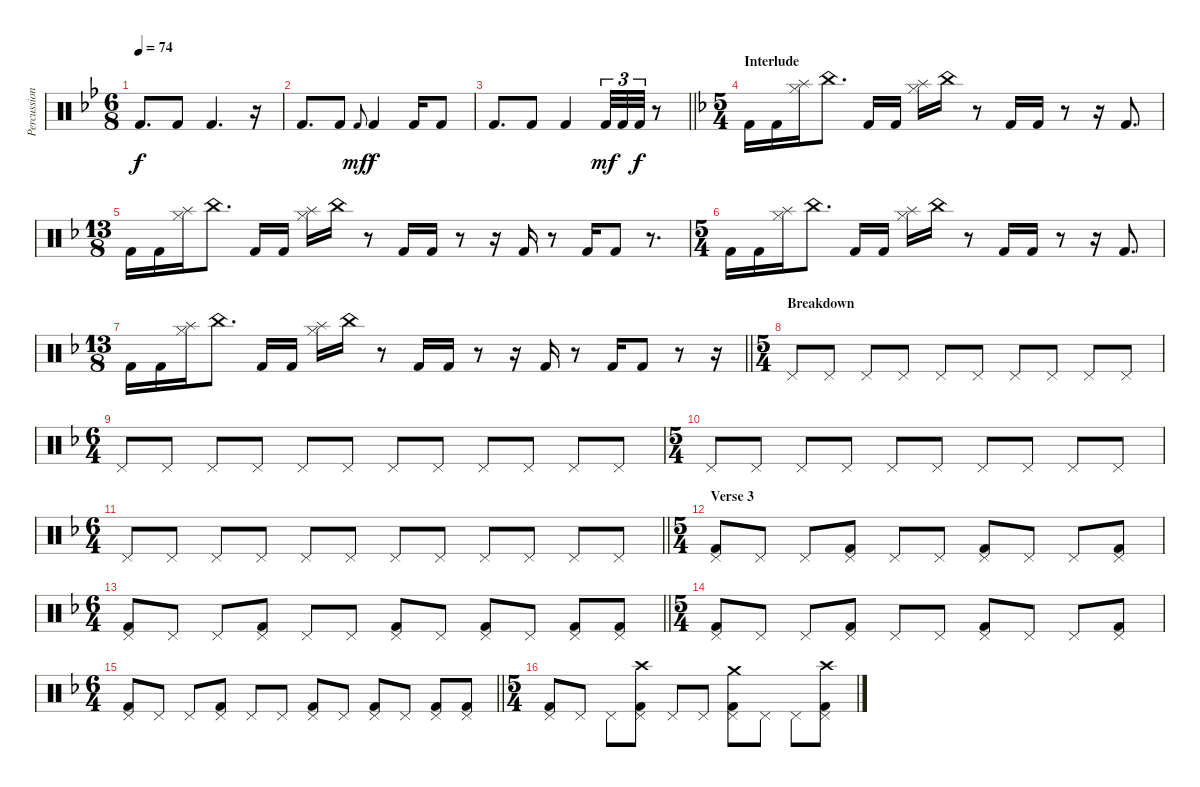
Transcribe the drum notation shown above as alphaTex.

\track ("Percussion" "Percussion") {instrument percussion}
\staff {score}
\articulation defaults
\ts (6 8)
\tempo 74
\clef neutral
\ks bb "Kick (hit) 2".8{d dy f} "Kick (hit) 2".8 "Kick (hit) 2".4{d}
r.16 |
"Kick (hit) 2".8{d} "Kick (hit) 2".8 "Kick (hit) 2".8{gr onbeat dy mf} "Kick (hit) 2".4{dy f} "Kick (hit) 2".16 "Kick (hit) 2".8 |
\barLineRight lightlight "Kick (hit) 2".8{d} "Kick (hit) 2".8 "Kick (hit) 2".4 "Kick (hit) 2".32{tu (3 2) dy mf} "Kick (hit) 2".32{tu (3 2)} "Kick (hit) 2".32{tu (3 2) dy f}
r.8 |
\ts (5 4)
\section ("" "Interlude")
\ks f "Kick (hit) 2".16 "Kick (hit) 2".16
("Hi-Hat (closed)" "Splash (hit)").16 "China (hit)".8{d} "Kick (hit) 2".16 "Kick (hit) 2".16 ("Hi-Hat (closed)" "Splash (hit)").16 "China (hit)".16 r.8 "Kick (hit) 2".16 "Kick (hit) 2".16 r.8 r.16 "Kick (hit) 2".8{d} |
\ts (13 8)
"Kick (hit) 2".16 "Kick (hit) 2".16 ("Splash (hit)" "Hi-Hat (closed)").16 "China (hit)".8{d} "Kick (hit) 2".16 "Kick (hit) 2".16 ("Splash (hit)" "Hi-Hat (closed)").16 "China (hit)".16 r.8 "Kick (hit) 2".16 "Kick (hit) 2".16 r.8 r.16 "Kick (hit) 2".16 r.8 "Kick (hit) 2".16 "Kick (hit) 2".8 r.8{d} |
\ts (5 4)
"Kick (hit) 2".16 "Kick (hit) 2".16 ("Hi-Hat (closed)" "Splash (hit)").16 "China (hit)".8{d} "Kick (hit) 2".16 "Kick (hit) 2".16 ("Hi-Hat (closed)" "Splash (hit)").16 "China (hit)".16 r.8 "Kick (hit) 2".16 "Kick (hit) 2".16 r.8 r.16 "Kick (hit) 2".8{d} |
\ts (13 8)
\barLineRight lightlight "Kick (hit) 2".16 "Kick (hit) 2".16
("Splash (hit)" "Hi-Hat (closed)").16 "China (hit)".8{d} "Kick (hit) 2".16 "Kick (hit) 2".16 ("Splash (hit)" "Hi-Hat (closed)").16 "China (hit)".16 r.8 "Kick (hit) 2".16 "Kick (hit) 2".16 r.8 r.16 "Kick (hit) 2".16 r.8 "Kick (hit) 2".16 "Kick (hit) 2".8 r.8 r.16 |
\ts (5 4)
\section ("" "Breakdown")
"Pedal Hi-Hat (hit)".8 "Pedal Hi-Hat (hit)".8 "Pedal Hi-Hat (hit)".8 "Pedal Hi-Hat (hit)".8 "Pedal Hi-Hat (hit)".8 "Pedal Hi-Hat (hit)".8 "Pedal Hi-Hat (hit)".8 "Pedal Hi-Hat (hit)".8 "Pedal Hi-Hat (hit)".8 "Pedal Hi-Hat (hit)".8 |
\ts (6 4)
"Pedal Hi-Hat (hit)".8 "Pedal Hi-Hat (hit)".8 "Pedal Hi-Hat (hit)".8 "Pedal Hi-Hat (hit)".8 "Pedal Hi-Hat (hit)".8 "Pedal Hi-Hat (hit)".8 "Pedal Hi-Hat (hit)".8 "Pedal Hi-Hat (hit)".8 "Pedal Hi-Hat (hit)".8 "Pedal Hi-Hat (hit)".8 "Pedal Hi-Hat (hit)".8 "Pedal Hi-Hat (hit)".8 |
\ts (5 4)
"Pedal Hi-Hat (hit)".8 "Pedal Hi-Hat (hit)".8 "Pedal Hi-Hat (hit)".8 "Pedal Hi-Hat (hit)".8 "Pedal Hi-Hat (hit)".8 "Pedal Hi-Hat (hit)".8 "Pedal Hi-Hat (hit)".8 "Pedal Hi-Hat (hit)".8 "Pedal Hi-Hat (hit)".8 "Pedal Hi-Hat (hit)".8 |
\ts (6 4)
\barLineRight lightlight "Pedal Hi-Hat (hit)".8 "Pedal Hi-Hat (hit)".8 "Pedal Hi-Hat (hit)".8 "Pedal Hi-Hat (hit)".8 "Pedal Hi-Hat (hit)".8 "Pedal Hi-Hat (hit)".8 "Pedal Hi-Hat (hit)".8 "Pedal Hi-Hat (hit)".8 "Pedal Hi-Hat (hit)".8 "Pedal Hi-Hat (hit)".8 "Pedal Hi-Hat (hit)".8 "Pedal Hi-Hat (hit)".8
|
\ts (5 4)
\section ("" "Verse 3")
("Pedal Hi-Hat (hit)" "Kick (hit) 2").8 "Pedal Hi-Hat (hit)".8 "Pedal Hi-Hat (hit)".8 ("Pedal Hi-Hat (hit)" "Kick (hit) 2").8 "Pedal Hi-Hat (hit)".8 "Pedal Hi-Hat (hit)".8 ("Pedal Hi-Hat (hit)" "Kick (hit) 2").8 "Pedal Hi-Hat (hit)".8 "Pedal Hi-Hat (hit)".8 ("Pedal Hi-Hat (hit)" "Kick (hit) 2").8 |
\ts (6 4)
\barLineRight lightlight
("Pedal Hi-Hat (hit)" "Kick (hit) 2").8 "Pedal Hi-Hat (hit)".8 "Pedal Hi-Hat (hit)".8 ("Pedal Hi-Hat (hit)" "Kick (hit) 2").8 "Pedal Hi-Hat (hit)".8 "Pedal Hi-Hat (hit)".8 ("Pedal Hi-Hat (hit)" "Kick (hit) 2").8 "Pedal Hi-Hat (hit)".8 ("Pedal Hi-Hat (hit)" "Kick (hit) 2").8 "Pedal Hi-Hat (hit)".8 ("Pedal Hi-Hat (hit)" "Kick (hit) 2").8 ("Pedal Hi-Hat (hit)" "Kick (hit) 2").8 |
\ts (5 4)
("Pedal Hi-Hat (hit)" "Kick (hit) 2").8 "Pedal Hi-Hat (hit)".8 "Pedal Hi-Hat (hit)".8 ("Pedal Hi-Hat (hit)" "Kick (hit) 2").8 "Pedal Hi-Hat (hit)".8 "Pedal Hi-Hat (hit)".8 ("Pedal Hi-Hat (hit)" "Kick (hit) 2").8 "Pedal Hi-Hat (hit)".8 "Pedal Hi-Hat (hit)".8 ("Pedal Hi-Hat (hit)" "Kick (hit) 2").8 |
\ts (6 4)
\barLineRight lightlight
("Pedal Hi-Hat (hit)" "Kick (hit) 2").8 "Pedal Hi-Hat (hit)".8 "Pedal Hi-Hat (hit)".8 ("Pedal Hi-Hat (hit)" "Kick (hit) 2").8 "Pedal Hi-Hat (hit)".8 "Pedal Hi-Hat (hit)".8 ("Pedal Hi-Hat (hit)" "Kick (hit) 2").8 "Pedal Hi-Hat (hit)".8 ("Pedal Hi-Hat (hit)" "Kick (hit) 2").8 "Pedal Hi-Hat (hit)".8 ("Pedal Hi-Hat (hit)" "Kick (hit) 2").8 ("Pedal Hi-Hat (hit)" "Kick (hit) 2").8 |
\ts (5 4)
("Pedal Hi-Hat (hit)" "Kick (hit) 2").8 "Pedal Hi-Hat (hit)".8 "Pedal Hi-Hat (hit)".8 ("Pedal Hi-Hat (hit)" "Kick (hit) 2" "Crash high (hit)").8 "Pedal Hi-Hat (hit)".8 "Pedal Hi-Hat (hit)".8 ("Pedal Hi-Hat (hit)" "Kick (hit) 2" "Crash medium (hit)").8 "Pedal Hi-Hat (hit)".8 "Pedal Hi-Hat (hit)".8 ("Pedal Hi-Hat (hit)" "Kick (hit) 2" "Crash high (hit)").8
